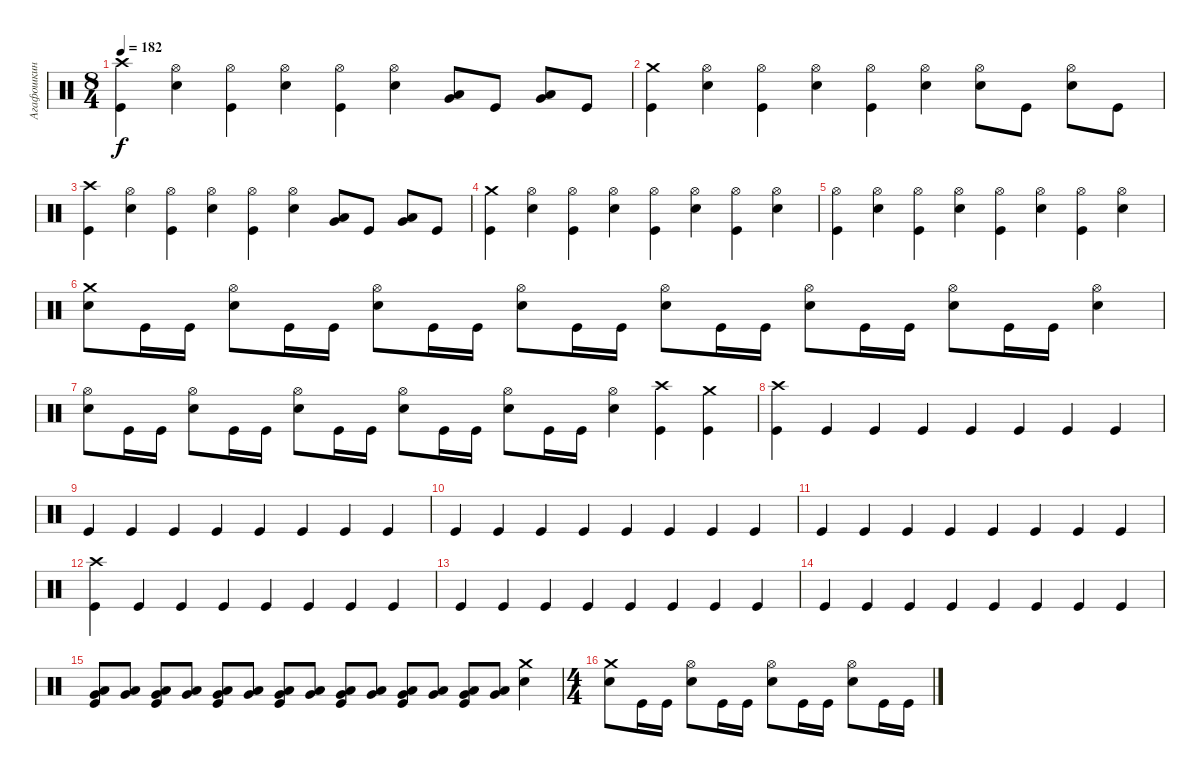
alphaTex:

\track ("Агафошкин" "Агафошкин") {instrument percussion}
\staff {score}
\articulation defaults
\ts (8 4)
\tempo 182
\clef neutral
\ks c
("Crash high (hit)" "Kick (hit)").4{dy f} ("Hi-Hat (open)" "Snare (hit) 2").4 ("Hi-Hat (open)" "Kick (hit)").4 ("Hi-Hat (open)" "Snare (hit) 2").4 ("Hi-Hat (open)" "Kick (hit)").4 ("Hi-Hat (open)" "Snare (hit) 2").4 ("Very Low Tom (hit)" "Low Tom (hit)").8 "Kick (hit)".8 ("Very Low Tom (hit)" "Low Tom (hit)").8 "Kick (hit)".8 |
("Crash medium (hit)" "Kick (hit)").4 ("Hi-Hat (open)" "Snare (hit) 2").4 ("Hi-Hat (open)" "Kick (hit)").4 ("Hi-Hat (open)" "Snare (hit) 2").4 ("Hi-Hat (open)" "Kick (hit)").4 ("Hi-Hat (open)" "Snare (hit) 2").4 ("Hi-Hat (open)" "Snare (hit) 2").8 "Kick (hit)".8 ("Hi-Hat (open)" "Snare (hit) 2").8 "Kick (hit)".8 |
("Crash high (hit)" "Kick (hit)").4 ("Hi-Hat (open)" "Snare (hit) 2").4 ("Hi-Hat (open)" "Kick (hit)").4 ("Hi-Hat (open)" "Snare (hit) 2").4 ("Hi-Hat (open)" "Kick (hit)").4 ("Hi-Hat (open)" "Snare (hit) 2").4 ("Very Low Tom (hit)" "Low Tom (hit)").8 "Kick (hit)".8 ("Very Low Tom (hit)" "Low Tom (hit)").8 "Kick (hit)".8 |
("Crash medium (hit)" "Kick (hit)").4 ("Hi-Hat (open)" "Snare (hit) 2").4 ("Hi-Hat (open)" "Kick (hit)").4 ("Hi-Hat (open)" "Snare (hit) 2").4 ("Hi-Hat (open)" "Kick (hit)").4 ("Hi-Hat (open)" "Snare (hit) 2").4 ("Hi-Hat (open)" "Kick (hit)").4 ("Hi-Hat (open)" "Snare (hit) 2").4 |
("Hi-Hat (open)" "Kick (hit)").4 ("Hi-Hat (open)" "Snare (hit) 2").4 ("Hi-Hat (open)" "Kick (hit)").4 ("Hi-Hat (open)" "Snare (hit) 2").4 ("Hi-Hat (open)" "Kick (hit)").4 ("Hi-Hat (open)" "Snare (hit) 2").4 ("Hi-Hat (open)" "Kick (hit)").4 ("Hi-Hat (open)" "Snare (hit) 2").4 |
("Crash medium (hit)" "Snare (hit) 2").8 "Kick (hit)".16 "Kick (hit)".16 ("Hi-Hat (open)" "Snare (hit) 2").8 "Kick (hit)".16 "Kick (hit)".16 ("Hi-Hat (open)" "Snare (hit) 2").8 "Kick (hit)".16 "Kick (hit)".16 ("Hi-Hat (open)" "Snare (hit) 2").8 "Kick (hit)".16 "Kick (hit)".16 ("Hi-Hat (open)" "Snare (hit) 2").8 "Kick (hit)".16 "Kick (hit)".16 ("Hi-Hat (open)" "Snare (hit) 2").8 "Kick (hit)".16 "Kick (hit)".16 ("Hi-Hat (open)" "Snare (hit) 2").8 "Kick (hit)".16 "Kick (hit)".16 ("Hi-Hat (open)" "Snare (hit) 2").4 |
("Hi-Hat (open)" "Snare (hit) 2").8 "Kick (hit)".16 "Kick (hit)".16 ("Hi-Hat (open)" "Snare (hit) 2").8 "Kick (hit)".16 "Kick (hit)".16 ("Hi-Hat (open)" "Snare (hit) 2").8 "Kick (hit)".16 "Kick (hit)".16 ("Hi-Hat (open)" "Snare (hit) 2").8 "Kick (hit)".16 "Kick (hit)".16 ("Hi-Hat (open)" "Snare (hit) 2").8 "Kick (hit)".16 "Kick (hit)".16 ("Hi-Hat (open)" "Snare (hit) 2").4 ("Crash high (hit)" "Kick (hit)").4 ("Crash medium (hit)" "Kick (hit)").4 |
("Crash high (hit)" "Kick (hit)").4 "Kick (hit)".4 "Kick (hit)".4 "Kick (hit)".4 "Kick (hit)".4 "Kick (hit)".4 "Kick (hit)".4 "Kick (hit)".4 |
"Kick (hit)".4 "Kick (hit)".4 "Kick (hit)".4 "Kick (hit)".4 "Kick (hit)".4 "Kick (hit)".4 "Kick (hit)".4 "Kick (hit)".4 |
"Kick (hit)".4 "Kick (hit)".4 "Kick (hit)".4 "Kick (hit)".4 "Kick (hit)".4 "Kick (hit)".4 "Kick (hit)".4 "Kick (hit)".4 |
"Kick (hit)".4 "Kick (hit)".4 "Kick (hit)".4 "Kick (hit)".4 "Kick (hit)".4 "Kick (hit)".4 "Kick (hit)".4 "Kick (hit)".4 |
("Crash high (hit)" "Kick (hit)").4 "Kick (hit)".4 "Kick (hit)".4 "Kick (hit)".4 "Kick (hit)".4 "Kick (hit)".4 "Kick (hit)".4 "Kick (hit)".4 |
"Kick (hit)".4 "Kick (hit)".4 "Kick (hit)".4 "Kick (hit)".4 "Kick (hit)".4 "Kick (hit)".4 "Kick (hit)".4 "Kick (hit)".4 |
"Kick (hit)".4 "Kick (hit)".4 "Kick (hit)".4 "Kick (hit)".4 "Kick (hit)".4 "Kick (hit)".4 "Kick (hit)".4 "Kick (hit)".4 |
("Very Low Tom (hit)" "Low Tom (hit)" "Kick (hit)").8 ("Very Low Tom (hit)" "Low Tom (hit)").8 ("Very Low Tom (hit)" "Low Tom (hit)" "Kick (hit)").8 ("Low Tom (hit)" "Very Low Tom (hit)").8 ("Very Low Tom (hit)" "Low Tom (hit)" "Kick (hit)").8 ("Low Tom (hit)" "Very Low Tom (hit)").8 ("Very Low Tom (hit)" "Low Tom (hit)" "Kick (hit)").8 ("Very Low Tom (hit)" "Low Tom (hit)").8 ("Very Low Tom (hit)" "Low Tom (hit)" "Kick (hit)").8 ("Low Tom (hit)" "Very Low Tom (hit)").8 ("Very Low Tom (hit)" "Low Tom (hit)" "Kick (hit)").8 ("Very Low Tom (hit)" "Low Tom (hit)").8 ("Very Low Tom (hit)" "Low Tom (hit)" "Kick (hit)").8 ("Very Low Tom (hit)" "Low Tom (hit)").8 ("Crash medium (hit)" "Snare (hit) 2").4 |
\ts (4 4)
("Crash medium (hit)" "Snare (hit) 2").8 "Kick (hit)".16 "Kick (hit)".16 ("Hi-Hat (open)" "Snare (hit) 2").8 "Kick (hit)".16 "Kick (hit)".16 ("Hi-Hat (open)" "Snare (hit) 2").8 "Kick (hit)".16 "Kick (hit)".16 ("Hi-Hat (open)" "Snare (hit) 2").8 "Kick (hit)".16 "Kick (hit)".16
